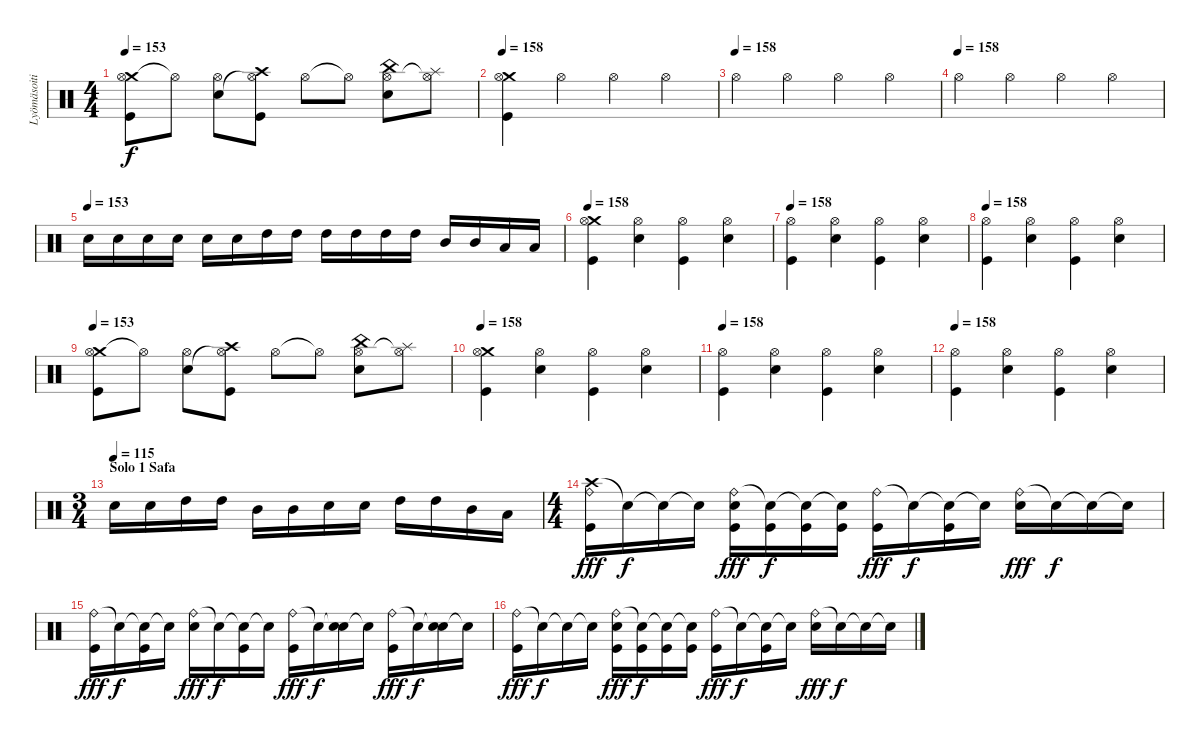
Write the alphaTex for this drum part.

\track ("Lyömäsoitin" "Lyömäsoiti") {instrument percussion}
\staff {score}
\articulation defaults
\ts (4 4)
\tempo 153
\clef neutral
\ks c
("Crash medium (hit)" "Hi-Hat (open)" "Kick (hit)").8{dy f} "Hi-Hat (open)"{t}.8 ("Hi-Hat (open)" "Snare (hit) 2").8 ("Crash high (hit)" "Hi-Hat (open)"{t} "Kick (hit)").8 "Hi-Hat (open)".8 "Hi-Hat (open)"{t}.8 ("China (hit)" "Hi-Hat (open)" "Snare (hit) 2").8 ("Splash (hit)" "Hi-Hat (open)"{t}).8 |
\tempo 158
("Crash medium (hit)" "Hi-Hat (open)" "Kick (hit)").4 "Hi-Hat (open)".4 "Hi-Hat (open)".4 "Hi-Hat (open)".4 |
\tempo (158)
"Hi-Hat (open)".4 "Hi-Hat (open)".4 "Hi-Hat (open)".4 "Hi-Hat (open)".4 |
\tempo (158)
"Hi-Hat (open)".4 "Hi-Hat (open)".4 "Hi-Hat (open)".4 "Hi-Hat (open)".4 |
\tempo (153)
"Snare (hit) 2".16 "Snare (hit) 2".16 "Snare (hit) 2".16 "Snare (hit) 2".16 "Snare (hit) 2".16 "Snare (hit) 2".16 "High Tom (hit)".16 "High Tom (hit)".16 "High Tom (hit)".16 "High Tom (hit)".16 "High Tom (hit)".16 "High Tom (hit)".16 "Mid Tom (hit)".16 "Mid Tom (hit)".16 "Low Tom (hit)".16 "Low Tom (hit)".16 |
\tempo 158
("Crash medium (hit)" "Hi-Hat (open)" "Kick (hit)").4 ("Hi-Hat (open)" "Snare (hit) 2").4 ("Hi-Hat (open)" "Kick (hit)").4 ("Hi-Hat (open)" "Snare (hit) 2").4 |
\tempo 158
("Hi-Hat (open)" "Kick (hit)").4 ("Hi-Hat (open)" "Snare (hit) 2").4 ("Hi-Hat (open)" "Kick (hit)").4 ("Hi-Hat (open)" "Snare (hit) 2").4 |
\tempo 158
("Hi-Hat (open)" "Kick (hit)").4 ("Hi-Hat (open)" "Snare (hit) 2").4 ("Hi-Hat (open)" "Kick (hit)").4 ("Hi-Hat (open)" "Snare (hit) 2").4 |
\tempo 153
("Crash medium (hit)" "Hi-Hat (open)" "Kick (hit)").8 "Hi-Hat (open)"{t}.8 ("Hi-Hat (open)" "Snare (hit) 2").8 ("Crash high (hit)" "Hi-Hat (open)"{t} "Kick (hit)").8 "Hi-Hat (open)".8 "Hi-Hat (open)"{t}.8 ("China (hit)" "Hi-Hat (open)" "Snare (hit) 2").8 ("Splash (hit)" "Hi-Hat (open)"{t}).8 |
\tempo 158
("Crash medium (hit)" "Hi-Hat (open)" "Kick (hit)").4 ("Hi-Hat (open)" "Snare (hit) 2").4 ("Hi-Hat (open)" "Kick (hit)").4 ("Hi-Hat (open)" "Snare (hit) 2").4 |
\tempo 158
("Hi-Hat (open)" "Kick (hit)").4 ("Hi-Hat (open)" "Snare (hit) 2").4 ("Hi-Hat (open)" "Kick (hit)").4 ("Hi-Hat (open)" "Snare (hit) 2").4 |
\tempo 158
("Hi-Hat (open)" "Kick (hit)").4 ("Hi-Hat (open)" "Snare (hit) 2").4 ("Hi-Hat (open)" "Kick (hit)").4 ("Hi-Hat (open)" "Snare (hit) 2").4 |
\ts (3 4)
\section ("" "Solo 1 Safa")
\tempo (115)
"Snare (hit) 2".16 "Snare (hit) 2".16 "High Tom (hit)".16 "High Tom (hit)".16 "Mid Tom (hit)".16 "Mid Tom (hit)".16 "Snare (hit) 2".16 "Snare (hit) 2".16 "High Tom (hit)".16 "High Tom (hit)".16 "Mid Tom (hit)".16 "Low Tom (hit)".16 |
\ts (4 4)
("Crash high (hit)" "Ride (bell)" "Kick (hit)").16{dy fff} "Snare (hit)"{t}.16{dy f} "Snare (hit)"{t}.16 "Snare (hit)"{t}.16 ("Ride (bell)" "Snare (hit) 2" "Kick (hit)").16{dy fff} ("Snare (hit)"{t} "Kick (hit)").16{dy f} ("Snare (hit)"{t} "Kick (hit)").16 ("Snare (hit)"{t} "Kick (hit)").16 ("Ride (bell)" "Kick (hit)").16{dy fff} "Snare (hit)"{t}.16{dy f} ("Snare (hit)"{t} "Kick (hit)").16 "Snare (hit)"{t}.16 ("Ride (bell)" "Snare (hit) 2").16{dy fff} "Snare (hit)"{t}.16{dy f} "Snare (hit)"{t}.16 "Snare (hit)"{t}.16 |
("Ride (bell)" "Kick (hit)").16{dy fff} "Snare (hit)"{t}.16{dy f} ("Snare (hit)"{t} "Kick (hit)").16 "Snare (hit)"{t}.16 ("Ride (bell)" "Snare (hit) 2").16{dy fff} "Snare (hit)"{t}.16{dy f} ("Snare (hit)"{t} "Kick (hit)").16 "Snare (hit)"{t}.16 ("Ride (bell)" "Kick (hit)").16{dy fff} "Snare (hit)"{t}.16{dy f} ("Snare (hit)"{t} "Snare (hit) 2").16 "Snare (hit)"{t}.16 ("Ride (bell)" "Kick (hit)").16{dy fff} "Snare (hit)"{t}.16{dy f} ("Snare (hit)"{t} "Snare (hit) 2").16 "Snare (hit)"{t}.16 |
("Ride (bell)" "Kick (hit)").16{dy fff} "Snare (hit)"{t}.16{dy f} "Snare (hit)"{t}.16 "Snare (hit)"{t}.16 ("Ride (bell)" "Snare (hit) 2" "Kick (hit)").16{dy fff} ("Snare (hit)"{t} "Kick (hit)").16{dy f} ("Snare (hit)"{t} "Kick (hit)").16 ("Snare (hit)"{t} "Kick (hit)").16 ("Ride (bell)" "Kick (hit)").16{dy fff} "Snare (hit)"{t}.16{dy f} ("Snare (hit)"{t} "Kick (hit)").16 "Snare (hit)"{t}.16 ("Ride (bell)" "Snare (hit) 2").16{dy fff} "Snare (hit)"{t}.16{dy f} "Snare (hit)"{t}.16 "Snare (hit)"{t}.16
